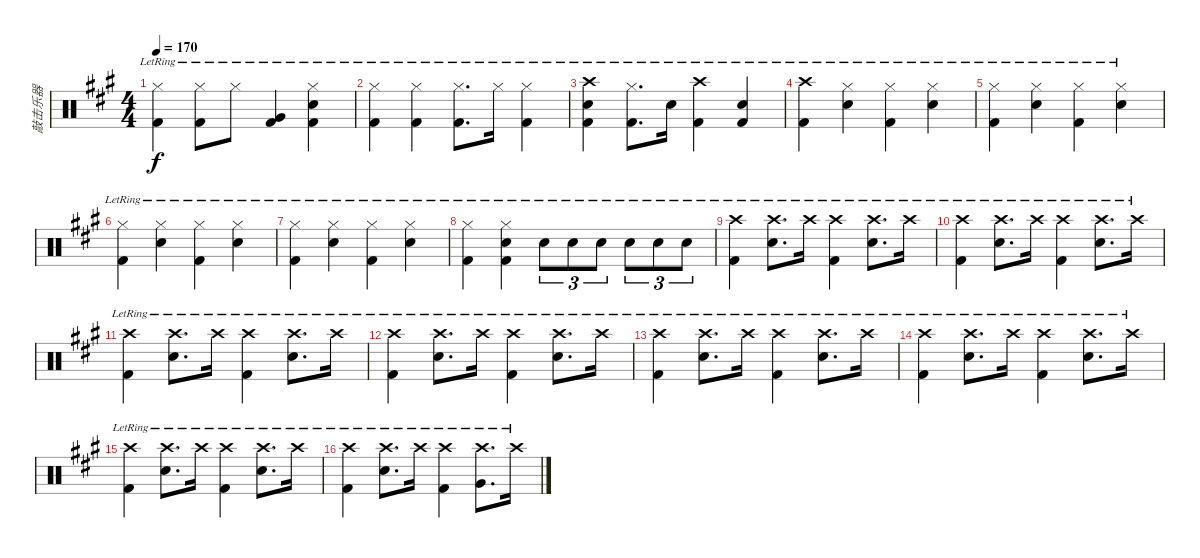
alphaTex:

\track ("敲击乐器" "敲击乐器") {instrument percussion}
\staff {score}
\articulation defaults
\ts (4 4)
\tempo 170
\clef neutral
\ks a
("Hi-Hat (closed)"{lr} "Kick (hit) 2"{lr}).4{dy f} ("Hi-Hat (closed)"{lr} "Kick (hit) 2"{lr}).8 "Hi-Hat (closed)"{lr}.8 ("Very Low Tom (hit)"{lr} "Kick (hit) 2"{lr}).4 ("Hi-Hat (closed)"{lr} "Snare (hit) 2"{lr} "Kick (hit) 2"{lr}).4 |
("Hi-Hat (closed)"{lr} "Kick (hit) 2"{lr}).4 ("Hi-Hat (closed)"{lr} "Kick (hit) 2"{lr}).4 ("Hi-Hat (closed)"{lr} "Kick (hit) 2"{lr}).8{d} "Hi-Hat (closed)"{lr}.16 ("Hi-Hat (closed)"{lr} "Kick (hit) 2"{lr}).4 |
("Crash high (hit)"{lr} "Snare (hit) 2"{lr} "Kick (hit) 2"{lr}).4 ("Hi-Hat (closed)"{lr} "Kick (hit) 2"{lr}).8{d} "Snare (hit) 2"{lr}.16 ("Crash high (hit)"{lr} "Kick (hit) 2"{lr}).4 ("Snare (hit) 2"{lr} "Kick (hit) 2"{lr}).4 |
("Crash high (hit)"{lr} "Kick (hit) 2"{lr}).4 ("Hi-Hat (closed)"{lr} "Snare (hit) 2"{lr}).4 ("Hi-Hat (closed)"{lr} "Kick (hit) 2"{lr}).4 ("Hi-Hat (closed)"{lr} "Snare (hit) 2"{lr}).4 |
("Hi-Hat (closed)"{lr} "Kick (hit) 2"{lr}).4 ("Hi-Hat (closed)"{lr} "Snare (hit) 2"{lr}).4 ("Hi-Hat (closed)"{lr} "Kick (hit) 2"{lr}).4 ("Hi-Hat (closed)"{lr} "Snare (hit) 2"{lr}).4 |
("Hi-Hat (closed)"{lr} "Kick (hit) 2"{lr}).4 ("Hi-Hat (closed)"{lr} "Snare (hit) 2"{lr}).4 ("Hi-Hat (closed)"{lr} "Kick (hit) 2"{lr}).4 ("Hi-Hat (closed)"{lr} "Snare (hit) 2"{lr}).4 |
("Hi-Hat (closed)"{lr} "Kick (hit) 2"{lr}).4 ("Hi-Hat (closed)"{lr} "Snare (hit) 2"{lr}).4 ("Hi-Hat (closed)"{lr} "Kick (hit) 2"{lr}).4 ("Hi-Hat (closed)"{lr} "Snare (hit) 2"{lr}).4 |
("Hi-Hat (closed)"{lr} "Kick (hit) 2"{lr}).4 ("Hi-Hat (closed)"{lr} "Snare (hit) 2"{lr} "Kick (hit) 2"{lr}).4 "Snare (hit) 2"{lr}.8{tu (3 2)} "Snare (hit) 2"{lr}.8{tu (3 2)} "Snare (hit) 2"{lr}.8{tu (3 2)} "Snare (hit) 2"{lr}.8{tu (3 2)} "Snare (hit) 2"{lr}.8{tu (3 2)} "Snare (hit) 2"{lr}.8{tu (3 2)} |
("Crash high (hit)"{lr} "Kick (hit) 2"{lr}).4 ("Crash high (hit)"{lr} "Snare (hit) 2"{lr}).8{d} "Crash high (hit)"{lr}.16 ("Crash high (hit)"{lr} "Kick (hit) 2"{lr}).4 ("Crash high (hit)"{lr} "Snare (hit) 2"{lr}).8{d} "Crash high (hit)"{lr}.16 |
("Crash high (hit)"{lr} "Kick (hit) 2"{lr}).4 ("Crash high (hit)"{lr} "Snare (hit) 2"{lr}).8{d} "Crash high (hit)"{lr}.16 ("Crash high (hit)"{lr} "Kick (hit) 2"{lr}).4 ("Crash high (hit)"{lr} "Snare (hit) 2"{lr}).8{d} "Crash high (hit)"{lr}.16 |
("Crash high (hit)"{lr} "Kick (hit) 2"{lr}).4 ("Crash high (hit)"{lr} "Snare (hit) 2"{lr}).8{d} "Crash high (hit)"{lr}.16 ("Crash high (hit)"{lr} "Kick (hit) 2"{lr}).4 ("Crash high (hit)"{lr} "Snare (hit) 2"{lr}).8{d} "Crash high (hit)"{lr}.16 |
("Crash high (hit)"{lr} "Kick (hit) 2"{lr}).4 ("Crash high (hit)"{lr} "Snare (hit) 2"{lr}).8{d} "Crash high (hit)"{lr}.16 ("Crash high (hit)"{lr} "Kick (hit) 2"{lr}).4 ("Crash high (hit)"{lr} "Snare (hit) 2"{lr}).8{d} "Crash high (hit)"{lr}.16 |
("Crash high (hit)"{lr} "Kick (hit) 2"{lr}).4 ("Crash high (hit)"{lr} "Snare (hit) 2"{lr}).8{d} "Crash high (hit)"{lr}.16 ("Crash high (hit)"{lr} "Kick (hit) 2"{lr}).4 ("Crash high (hit)"{lr} "Snare (hit) 2"{lr}).8{d} "Crash high (hit)"{lr}.16 |
("Crash high (hit)"{lr} "Kick (hit) 2"{lr}).4 ("Crash high (hit)"{lr} "Snare (hit) 2"{lr}).8{d} "Crash high (hit)"{lr}.16 ("Crash high (hit)"{lr} "Kick (hit) 2"{lr}).4 ("Crash high (hit)"{lr} "Snare (hit) 2"{lr}).8{d} "Crash high (hit)"{lr}.16 |
("Crash high (hit)"{lr} "Kick (hit) 2"{lr}).4 ("Crash high (hit)"{lr} "Snare (hit) 2"{lr}).8{d} "Crash high (hit)"{lr}.16 ("Crash high (hit)"{lr} "Kick (hit) 2"{lr}).4 ("Crash high (hit)"{lr} "Snare (hit) 2"{lr}).8{d} "Crash high (hit)"{lr}.16 |
("Crash high (hit)"{lr} "Kick (hit) 2"{lr}).4 ("Crash high (hit)"{lr} "Snare (hit) 2"{lr}).8{d} "Crash high (hit)"{lr}.16 ("Crash high (hit)"{lr} "Kick (hit) 2"{lr}).4 ("Crash high (hit)"{lr} "Very Low Tom (hit)"{lr}).8{d} "Crash high (hit)"{lr}.16
